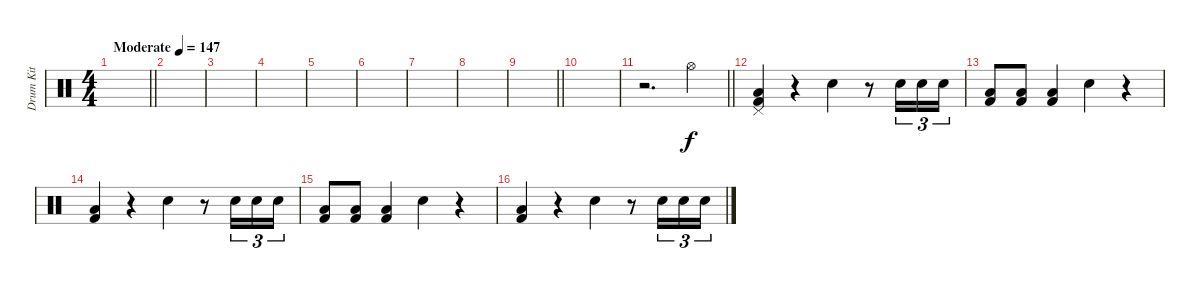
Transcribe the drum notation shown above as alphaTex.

\track ("Drum Kit" "Drum Kit") {instrument percussion}
\staff {score}
\articulation defaults
\ts (4 4)
\tempo (147 "Moderate")
\clef neutral
\barLineRight lightlight
\ks c
|
|
|
|
|
|
|
|
\barLineRight lightlight
|
|
\barLineRight lightlight
r.2{d} "Hi-Hat (open)".4 |
("Pedal Hi-Hat (hit)" "Low Floor Tom (hit)" "Kick (hit) 2").4 r.4 "Snare (hit) 2".4 r.8 "Snare (hit) 2".16{tu (3 2)} "Snare (hit) 2".16{tu (3 2)} "Snare (hit) 2".16{tu (3 2)} |
("Low Floor Tom (hit)" "Kick (hit) 2").8 ("Low Floor Tom (hit)" "Kick (hit) 2").8 ("Low Floor Tom (hit)" "Kick (hit) 2").4 "Snare (hit) 2".4 r.4 |
("Low Floor Tom (hit)" "Kick (hit) 2").4 r.4 "Snare (hit) 2".4 r.8 "Snare (hit) 2".16{tu (3 2)} "Snare (hit) 2".16{tu (3 2)} "Snare (hit) 2".16{tu (3 2)} |
("Low Floor Tom (hit)" "Kick (hit) 2").8 ("Low Floor Tom (hit)" "Kick (hit) 2").8 ("Low Floor Tom (hit)" "Kick (hit) 2").4 "Snare (hit) 2".4 r.4 |
("Low Floor Tom (hit)" "Kick (hit) 2").4 r.4 "Snare (hit) 2".4 r.8 "Snare (hit) 2".16{tu (3 2)} "Snare (hit) 2".16{tu (3 2)} "Snare (hit) 2".16{tu (3 2)}
